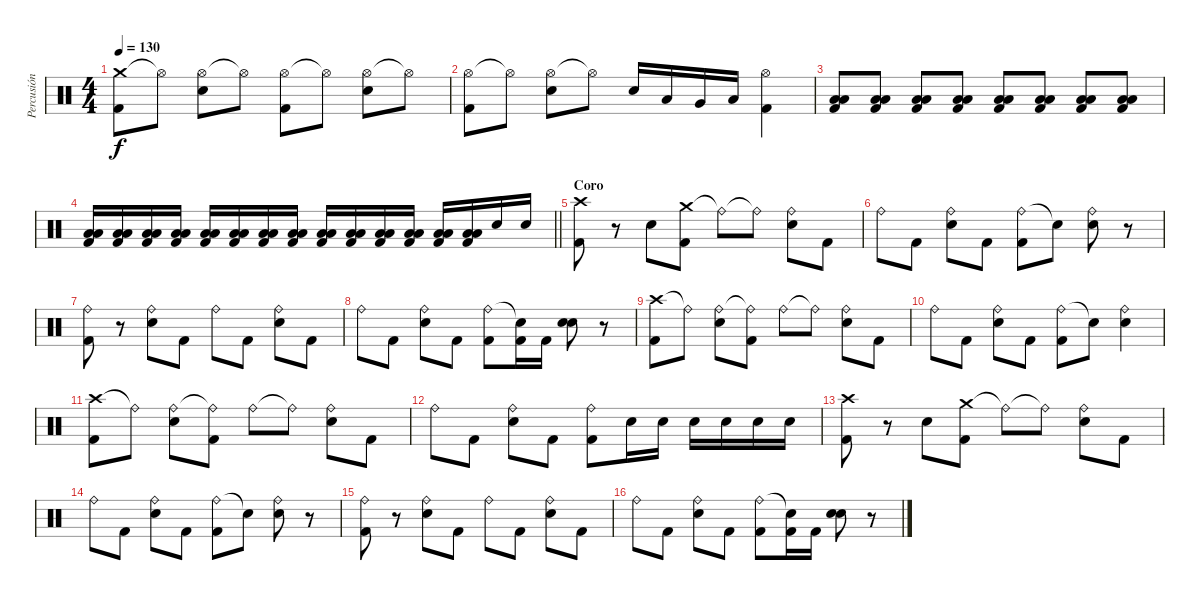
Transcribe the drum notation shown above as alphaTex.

\track ("Percusión" "Percusión") {instrument percussion}
\staff {score}
\articulation defaults
\ts (4 4)
\tempo 130
\clef neutral
\ks c
("Crash medium (hit)" "Kick (hit) 2").8{dy f} "Hi-Hat (open)"{t}.8 ("Hi-Hat (open)" "Snare (hit) 2").8 "Hi-Hat (open)"{t}.8 ("Hi-Hat (open)" "Kick (hit) 2").8 "Hi-Hat (open)"{t}.8 ("Hi-Hat (open)" "Snare (hit) 2").8 "Hi-Hat (open)"{t}.8 |
("Hi-Hat (open)" "Kick (hit) 2").8 "Hi-Hat (open)"{t}.8 ("Hi-Hat (open)" "Snare (hit) 2").8 "Hi-Hat (open)"{t}.8 "Snare (hit) 2".16 "Low Tom (hit)".16 "Very Low Tom (hit)".16 "Low Floor Tom (hit)".16 ("Kick (hit) 2" "Hi-Hat (open)").4 |
("Kick (hit) 2" "Low Floor Tom (hit)" "Low Tom (hit)").8{volume 9} ("Kick (hit) 2" "Low Floor Tom (hit)" "Low Tom (hit)").8 ("Kick (hit) 2" "Low Floor Tom (hit)" "Low Tom (hit)").8 ("Kick (hit) 2" "Low Floor Tom (hit)" "Low Tom (hit)").8 ("Kick (hit) 2" "Low Floor Tom (hit)" "Low Tom (hit)").8{volume 11} ("Kick (hit) 2" "Low Floor Tom (hit)" "Low Tom (hit)").8 ("Kick (hit) 2" "Low Floor Tom (hit)" "Low Tom (hit)").8 ("Kick (hit) 2" "Low Floor Tom (hit)" "Low Tom (hit)").8 |
\barLineRight lightlight
("Kick (hit) 2" "Low Floor Tom (hit)" "Low Tom (hit)").16{volume 13} ("Kick (hit) 2" "Low Floor Tom (hit)" "Low Tom (hit)").16 ("Kick (hit) 2" "Low Floor Tom (hit)" "Low Tom (hit)").16 ("Kick (hit) 2" "Low Floor Tom (hit)" "Low Tom (hit)").16 ("Kick (hit) 2" "Low Floor Tom (hit)" "Low Tom (hit)").16 ("Kick (hit) 2" "Low Floor Tom (hit)" "Low Tom (hit)").16 ("Kick (hit) 2" "Low Floor Tom (hit)" "Low Tom (hit)").16 ("Kick (hit) 2" "Low Floor Tom (hit)" "Low Tom (hit)").16 ("Kick (hit) 2" "Low Floor Tom (hit)" "Low Tom (hit)").16{volume 15} ("Kick (hit) 2" "Low Floor Tom (hit)" "Low Tom (hit)").16 ("Kick (hit) 2" "Low Floor Tom (hit)" "Low Tom (hit)").16 ("Kick (hit) 2" "Low Floor Tom (hit)" "Low Tom (hit)").16{volume 16} ("Kick (hit) 2" "Low Floor Tom (hit)" "Low Tom (hit)").16 ("Kick (hit) 2" "Low Floor Tom (hit)" "Low Tom (hit)").16 "Snare (hit) 2".16 "Snare (hit) 2".16 |
\section ("" "Coro")
("Crash high (hit)" "Kick (hit) 2").8 r.8 "Snare (hit) 2".8 ("Crash medium (hit)" "Kick (hit) 2").8 "Ride (bell)"{t}.8 "Ride (bell)"{t}.8 ("Ride (bell)" "Snare (hit) 2").8 "Kick (hit) 2".8 |
"Ride (bell)".8 "Kick (hit) 2".8 ("Ride (bell)" "Snare (hit) 2").8 "Kick (hit) 2".8 ("Ride (bell)" "Kick (hit) 2").8 "Snare (hit)"{t}.8 ("Ride (bell)" "Snare (hit) 2").8 r.8 |
("Ride (bell)" "Kick (hit) 2").8 r.8 ("Ride (bell)" "Snare (hit) 2").8 "Kick (hit) 2".8 "Ride (bell)".8 "Kick (hit) 2".8 ("Ride (bell)" "Snare (hit) 2").8 "Kick (hit) 2".8 |
"Ride (bell)".8 "Kick (hit) 2".8 ("Ride (bell)" "Snare (hit) 2").8 "Kick (hit) 2".8 ("Ride (bell)" "Kick (hit) 2").8 ("Snare (hit)"{t} "Kick (hit) 2").16 "Kick (hit) 2".16 ("Snare (hit) 2" "Snare (hit) 2").8 r.8 |
("Crash high (hit)" "Kick (hit) 2").8 "Ride (bell)"{t}.8 ("Ride (bell)" "Snare (hit) 2").8 ("Ride (bell)"{t} "Kick (hit) 2").8 "Ride (bell)".8 "Ride (bell)"{t}.8 ("Ride (bell)" "Snare (hit) 2").8 "Kick (hit) 2".8 |
"Ride (bell)".8 "Kick (hit) 2".8 ("Ride (bell)" "Snare (hit) 2").8 "Kick (hit) 2".8 ("Ride (bell)" "Kick (hit) 2").8 "Snare (hit)"{t}.8 ("Ride (bell)" "Snare (hit) 2").4 |
("Crash high (hit)" "Kick (hit) 2").8 "Ride (bell)"{t}.8 ("Ride (bell)" "Snare (hit) 2").8 ("Ride (bell)"{t} "Kick (hit) 2").8 "Ride (bell)".8 "Ride (bell)"{t}.8 ("Ride (bell)" "Snare (hit) 2").8 "Kick (hit) 2".8 |
"Ride (bell)".8 "Kick (hit) 2".8 ("Ride (bell)" "Snare (hit) 2").8 "Kick (hit) 2".8 ("Ride (bell)" "Kick (hit) 2").8 "Snare (hit) 2".16 "Snare (hit) 2".16 "Snare (hit) 2".16 "Snare (hit) 2".16 "Snare (hit) 2".16 "Snare (hit) 2".16 |
("Crash high (hit)" "Kick (hit) 2").8 r.8 "Snare (hit) 2".8 ("Crash medium (hit)" "Kick (hit) 2").8 "Ride (bell)"{t}.8 "Ride (bell)"{t}.8 ("Ride (bell)" "Snare (hit) 2").8 "Kick (hit) 2".8 |
"Ride (bell)".8 "Kick (hit) 2".8 ("Ride (bell)" "Snare (hit) 2").8 "Kick (hit) 2".8 ("Ride (bell)" "Kick (hit) 2").8 "Snare (hit)"{t}.8 ("Ride (bell)" "Snare (hit) 2").8 r.8 |
("Ride (bell)" "Kick (hit) 2").8 r.8 ("Ride (bell)" "Snare (hit) 2").8 "Kick (hit) 2".8 "Ride (bell)".8 "Kick (hit) 2".8 ("Ride (bell)" "Snare (hit) 2").8 "Kick (hit) 2".8 |
"Ride (bell)".8 "Kick (hit) 2".8 ("Ride (bell)" "Snare (hit) 2").8 "Kick (hit) 2".8 ("Ride (bell)" "Kick (hit) 2").8 ("Snare (hit)"{t} "Kick (hit) 2").16 "Kick (hit) 2".16 ("Snare (hit) 2" "Snare (hit) 2").8 r.8
